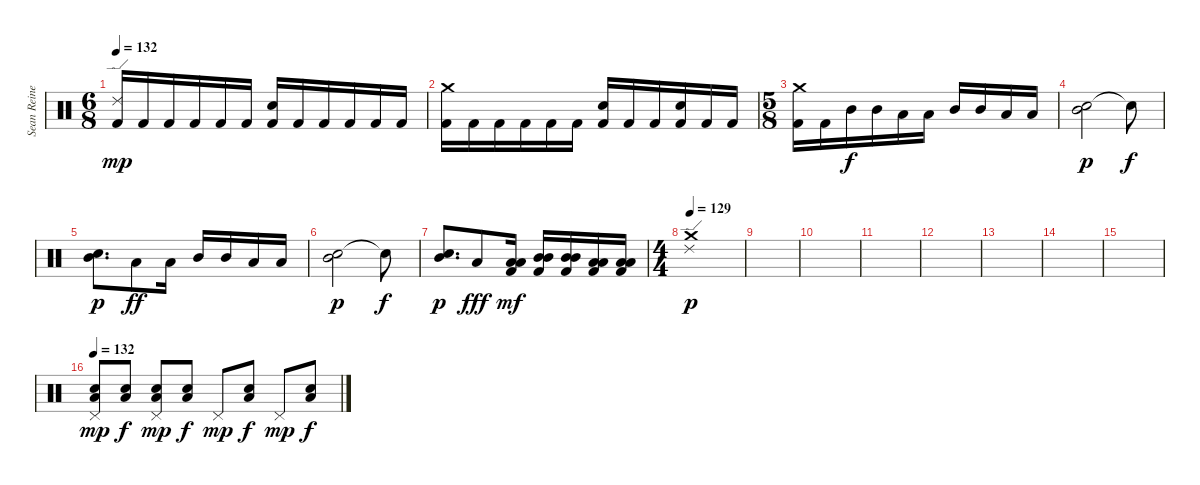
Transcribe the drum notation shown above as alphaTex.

\track ("Sean Reinert" "Sean Reine") {instrument percussion}
\staff {score}
\articulation defaults
\ts (6 8)
\tempo 132
\clef neutral
\ks c
("Ride (edge) 2" "Kick (hit) 2").16{dy mp} "Kick (hit) 2".16 "Kick (hit) 2".16 "Kick (hit) 2".16 "Kick (hit) 2".16 "Kick (hit) 2".16 ("Snare (hit) 2" "Kick (hit) 2").16 "Kick (hit) 2".16 "Kick (hit) 2".16 "Kick (hit) 2".16 "Kick (hit) 2".16 "Kick (hit) 2".16 |
("Crash medium (hit)" "Kick (hit) 2").16 "Kick (hit) 2".16 "Kick (hit) 2".16 "Kick (hit) 2".16 "Kick (hit) 2".16 "Kick (hit) 2".16 ("Snare (hit) 2" "Kick (hit) 2").16 "Kick (hit) 2".16 "Kick (hit) 2".16 ("Snare (hit) 2" "Kick (hit) 2").16 "Kick (hit) 2".16 "Kick (hit) 2".16 |
\ts (5 8)
("Crash medium (hit)" "Kick (hit) 2").16 "Kick (hit) 2".16 "Mid Tom (hit)".16{dy f} "Mid Tom (hit)".16 "Low Tom (hit)".16 "Low Tom (hit)".16 "Mid Tom (hit)".16 "Mid Tom (hit)".16 "Low Tom (hit)".16 "Low Tom (hit)".16 |
("Snare (hit) 2" "Mid Tom (hit)").2{dy p} "Snare (hit)"{t}.8{dy f} |
("Snare (hit) 2" "Mid Tom (hit)").8{d dy p} "Low Tom (hit)".8{dy ff} "Low Tom (hit)".16 "Mid Tom (hit)".16 "Mid Tom (hit)".16 "Low Tom (hit)".16 "Low Tom (hit)".16 |
("Snare (hit) 2" "Mid Tom (hit)").2{dy p} "Snare (hit)"{t}.8{dy f} |
("Snare (hit) 2" "Mid Tom (hit)").8{d dy p} "Low Tom (hit)".8{dy fff} ("Low Tom (hit)" "Low Tom (hit)" "Kick (hit) 2").16{dy mf} ("Mid Tom (hit)" "Mid Tom (hit)" "Kick (hit) 2").16 ("Mid Tom (hit)" "Mid Tom (hit)" "Kick (hit) 2").16 ("Low Tom (hit)" "Low Tom (hit)" "Kick (hit) 2").16 ("Low Tom (hit)" "Low Tom (hit)" "Kick (hit) 2").16 |
\ts (4 4)
\tempo 127
\tempo 129
("Crash medium (hit)" "Ride (edge) 2").1{dy p} |
|
|
|
|
|
|
|
\tempo 132
("Snare (hit) 2" "Low Tom (hit)" "Pedal Hi-Hat (hit)").8{dy mp} ("Snare (hit) 2" "Low Tom (hit)").8{dy f} ("Snare (hit) 2" "Low Tom (hit)" "Pedal Hi-Hat (hit)").8{dy mp} ("Snare (hit) 2" "Low Tom (hit)").8{dy f} "Pedal Hi-Hat (hit)".8{dy mp} ("Snare (hit) 2" "Low Tom (hit)").8{dy f} "Pedal Hi-Hat (hit)".8{dy mp} ("Snare (hit) 2" "Low Tom (hit)").8{dy f}
